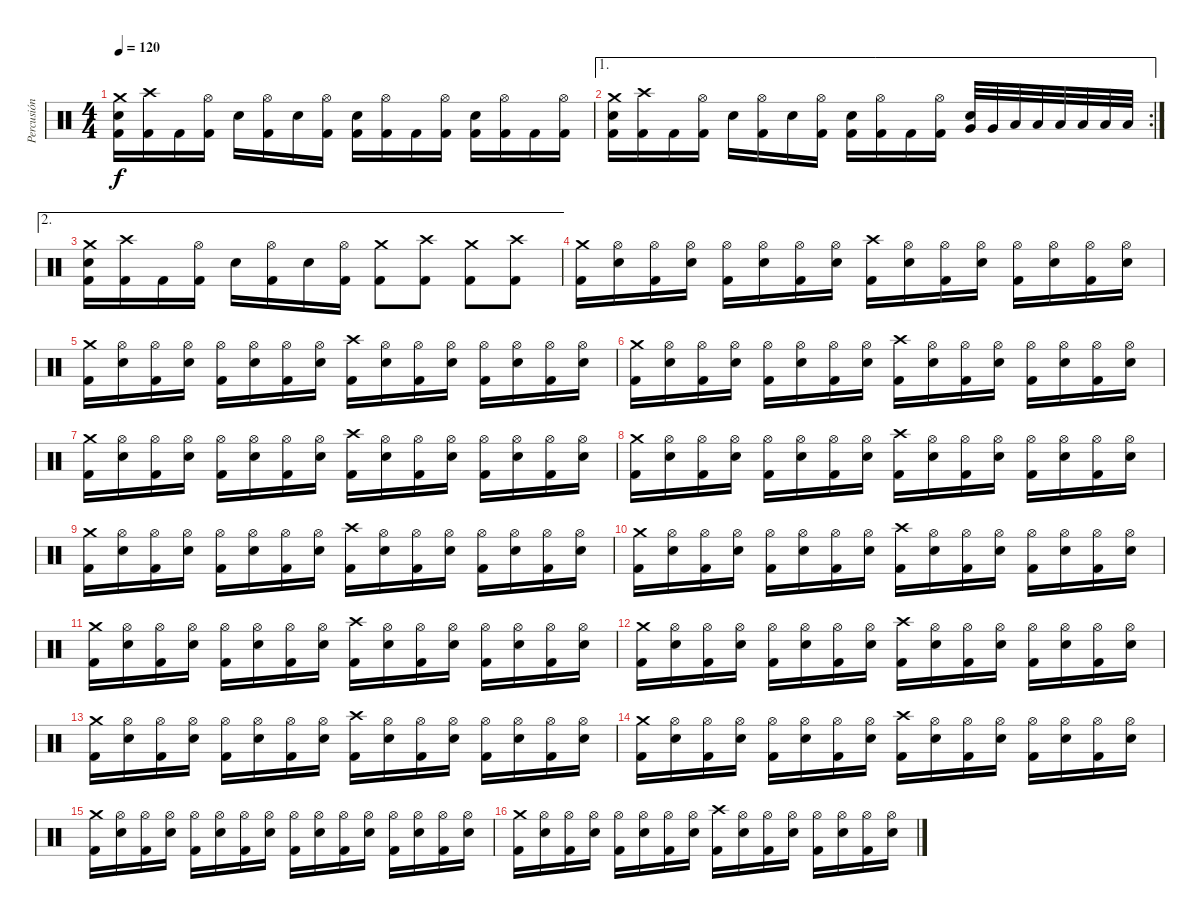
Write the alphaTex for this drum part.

\track ("Percusión" "Percusión") {instrument percussion}
\staff {score}
\articulation defaults
\ts (4 4)
\tempo 120
\clef neutral
\ks c
("Crash medium (hit)" "Electric Snare (hit)" "Kick (hit) 2").16{dy f} ("Crash high (hit)" "Kick (hit) 2").16 "Kick (hit) 2".16 ("Hi-Hat (open)" "Kick (hit) 2").16 "Electric Snare (hit)".16 ("Hi-Hat (open)" "Kick (hit) 2").16 "Electric Snare (hit)".16 ("Hi-Hat (open)" "Kick (hit) 2").16 ("Electric Snare (hit)" "Kick (hit) 2").16 ("Hi-Hat (open)" "Kick (hit) 2").16 "Kick (hit) 2".16 ("Hi-Hat (open)" "Kick (hit) 2").16 ("Electric Snare (hit)" "Kick (hit) 2").16 ("Hi-Hat (open)" "Kick (hit) 2").16 "Kick (hit) 2".16 ("Hi-Hat (open)" "Kick (hit) 2").16 |
\ae 1
\rc 2
("Crash medium (hit)" "Electric Snare (hit)" "Kick (hit) 2").16 ("Crash high (hit)" "Kick (hit) 2").16 "Kick (hit) 2".16 ("Hi-Hat (open)" "Kick (hit) 2").16 "Electric Snare (hit)".16 ("Hi-Hat (open)" "Kick (hit) 2").16 "Electric Snare (hit)".16 ("Hi-Hat (open)" "Kick (hit) 2").16 ("Electric Snare (hit)" "Kick (hit) 2").16 ("Hi-Hat (open)" "Kick (hit) 2").16 "Kick (hit) 2".16 ("Hi-Hat (open)" "Kick (hit) 2").16 ("Very Low Tom (hit)" "Electric Snare (hit)").32 "Very Low Tom (hit)".32 "Low Floor Tom (hit)".32 "Low Floor Tom (hit)".32 "Low Tom (hit)".32 "Low Tom (hit)".32 "Low Floor Tom (hit)".32 "Low Floor Tom (hit)".32 |
\ae 2
("Crash medium (hit)" "Electric Snare (hit)" "Kick (hit) 2").16 ("Crash high (hit)" "Kick (hit) 2").16 "Kick (hit) 2".16 ("Hi-Hat (open)" "Kick (hit) 2").16 "Electric Snare (hit)".16 ("Hi-Hat (open)" "Kick (hit) 2").16 "Electric Snare (hit)".16 ("Hi-Hat (open)" "Kick (hit) 2").16 ("Crash medium (hit)" "Kick (hit) 2").8 ("Crash high (hit)" "Kick (hit) 2").8 ("Crash medium (hit)" "Kick (hit) 2").8 ("Crash high (hit)" "Kick (hit) 2").8 |
("Crash medium (hit)" "Kick (hit) 2").16 ("Hi-Hat (open)" "Electric Snare (hit)").16 ("Hi-Hat (open)" "Kick (hit) 2").16 ("Hi-Hat (open)" "Electric Snare (hit)").16 ("Hi-Hat (open)" "Kick (hit) 2").16 ("Hi-Hat (open)" "Electric Snare (hit)").16 ("Hi-Hat (open)" "Kick (hit) 2").16 ("Hi-Hat (open)" "Electric Snare (hit)").16 ("Crash high (hit)" "Kick (hit) 2").16 ("Hi-Hat (open)" "Electric Snare (hit)").16 ("Hi-Hat (open)" "Kick (hit) 2").16 ("Hi-Hat (open)" "Electric Snare (hit)").16 ("Hi-Hat (open)" "Kick (hit) 2").16 ("Hi-Hat (open)" "Electric Snare (hit)").16 ("Hi-Hat (open)" "Kick (hit) 2").16 ("Hi-Hat (open)" "Electric Snare (hit)").16 |
("Crash medium (hit)" "Kick (hit) 2").16 ("Hi-Hat (open)" "Electric Snare (hit)").16 ("Hi-Hat (open)" "Kick (hit) 2").16 ("Hi-Hat (open)" "Electric Snare (hit)").16 ("Hi-Hat (open)" "Kick (hit) 2").16 ("Hi-Hat (open)" "Electric Snare (hit)").16 ("Hi-Hat (open)" "Kick (hit) 2").16 ("Hi-Hat (open)" "Electric Snare (hit)").16 ("Crash high (hit)" "Kick (hit) 2").16 ("Hi-Hat (open)" "Electric Snare (hit)").16 ("Hi-Hat (open)" "Kick (hit) 2").16 ("Hi-Hat (open)" "Electric Snare (hit)").16 ("Hi-Hat (open)" "Kick (hit) 2").16 ("Hi-Hat (open)" "Electric Snare (hit)").16 ("Hi-Hat (open)" "Kick (hit) 2").16 ("Hi-Hat (open)" "Electric Snare (hit)").16 |
("Crash medium (hit)" "Kick (hit) 2").16 ("Hi-Hat (open)" "Electric Snare (hit)").16 ("Hi-Hat (open)" "Kick (hit) 2").16 ("Hi-Hat (open)" "Electric Snare (hit)").16 ("Hi-Hat (open)" "Kick (hit) 2").16 ("Hi-Hat (open)" "Electric Snare (hit)").16 ("Hi-Hat (open)" "Kick (hit) 2").16 ("Hi-Hat (open)" "Electric Snare (hit)").16 ("Crash high (hit)" "Kick (hit) 2").16 ("Hi-Hat (open)" "Electric Snare (hit)").16 ("Hi-Hat (open)" "Kick (hit) 2").16 ("Hi-Hat (open)" "Electric Snare (hit)").16 ("Hi-Hat (open)" "Kick (hit) 2").16 ("Hi-Hat (open)" "Electric Snare (hit)").16 ("Hi-Hat (open)" "Kick (hit) 2").16 ("Hi-Hat (open)" "Electric Snare (hit)").16 |
("Crash medium (hit)" "Kick (hit) 2").16 ("Hi-Hat (open)" "Electric Snare (hit)").16 ("Hi-Hat (open)" "Kick (hit) 2").16 ("Hi-Hat (open)" "Electric Snare (hit)").16 ("Hi-Hat (open)" "Kick (hit) 2").16 ("Hi-Hat (open)" "Electric Snare (hit)").16 ("Hi-Hat (open)" "Kick (hit) 2").16 ("Hi-Hat (open)" "Electric Snare (hit)").16 ("Crash high (hit)" "Kick (hit) 2").16 ("Hi-Hat (open)" "Electric Snare (hit)").16 ("Hi-Hat (open)" "Kick (hit) 2").16 ("Hi-Hat (open)" "Electric Snare (hit)").16 ("Hi-Hat (open)" "Kick (hit) 2").16 ("Hi-Hat (open)" "Electric Snare (hit)").16 ("Hi-Hat (open)" "Kick (hit) 2").16 ("Hi-Hat (open)" "Electric Snare (hit)").16 |
("Crash medium (hit)" "Kick (hit) 2").16 ("Hi-Hat (open)" "Electric Snare (hit)").16 ("Hi-Hat (open)" "Kick (hit) 2").16 ("Hi-Hat (open)" "Electric Snare (hit)").16 ("Hi-Hat (open)" "Kick (hit) 2").16 ("Hi-Hat (open)" "Electric Snare (hit)").16 ("Hi-Hat (open)" "Kick (hit) 2").16 ("Hi-Hat (open)" "Electric Snare (hit)").16 ("Crash high (hit)" "Kick (hit) 2").16 ("Hi-Hat (open)" "Electric Snare (hit)").16 ("Hi-Hat (open)" "Kick (hit) 2").16 ("Hi-Hat (open)" "Electric Snare (hit)").16 ("Hi-Hat (open)" "Kick (hit) 2").16 ("Hi-Hat (open)" "Electric Snare (hit)").16 ("Hi-Hat (open)" "Kick (hit) 2").16 ("Hi-Hat (open)" "Electric Snare (hit)").16 |
("Crash medium (hit)" "Kick (hit) 2").16 ("Hi-Hat (open)" "Electric Snare (hit)").16 ("Hi-Hat (open)" "Kick (hit) 2").16 ("Hi-Hat (open)" "Electric Snare (hit)").16 ("Hi-Hat (open)" "Kick (hit) 2").16 ("Hi-Hat (open)" "Electric Snare (hit)").16 ("Hi-Hat (open)" "Kick (hit) 2").16 ("Hi-Hat (open)" "Electric Snare (hit)").16 ("Crash high (hit)" "Kick (hit) 2").16 ("Hi-Hat (open)" "Electric Snare (hit)").16 ("Hi-Hat (open)" "Kick (hit) 2").16 ("Hi-Hat (open)" "Electric Snare (hit)").16 ("Hi-Hat (open)" "Kick (hit) 2").16 ("Hi-Hat (open)" "Electric Snare (hit)").16 ("Hi-Hat (open)" "Kick (hit) 2").16 ("Hi-Hat (open)" "Electric Snare (hit)").16 |
("Crash medium (hit)" "Kick (hit) 2").16 ("Hi-Hat (open)" "Electric Snare (hit)").16 ("Hi-Hat (open)" "Kick (hit) 2").16 ("Hi-Hat (open)" "Electric Snare (hit)").16 ("Hi-Hat (open)" "Kick (hit) 2").16 ("Hi-Hat (open)" "Electric Snare (hit)").16 ("Hi-Hat (open)" "Kick (hit) 2").16 ("Hi-Hat (open)" "Electric Snare (hit)").16 ("Crash high (hit)" "Kick (hit) 2").16 ("Hi-Hat (open)" "Electric Snare (hit)").16 ("Hi-Hat (open)" "Kick (hit) 2").16 ("Hi-Hat (open)" "Electric Snare (hit)").16 ("Hi-Hat (open)" "Kick (hit) 2").16 ("Hi-Hat (open)" "Electric Snare (hit)").16 ("Hi-Hat (open)" "Kick (hit) 2").16 ("Hi-Hat (open)" "Electric Snare (hit)").16 |
("Crash medium (hit)" "Kick (hit) 2").16 ("Hi-Hat (open)" "Electric Snare (hit)").16 ("Hi-Hat (open)" "Kick (hit) 2").16 ("Hi-Hat (open)" "Electric Snare (hit)").16 ("Hi-Hat (open)" "Kick (hit) 2").16 ("Hi-Hat (open)" "Electric Snare (hit)").16 ("Hi-Hat (open)" "Kick (hit) 2").16 ("Hi-Hat (open)" "Electric Snare (hit)").16 ("Crash high (hit)" "Kick (hit) 2").16 ("Hi-Hat (open)" "Electric Snare (hit)").16 ("Hi-Hat (open)" "Kick (hit) 2").16 ("Hi-Hat (open)" "Electric Snare (hit)").16 ("Hi-Hat (open)" "Kick (hit) 2").16 ("Hi-Hat (open)" "Electric Snare (hit)").16 ("Hi-Hat (open)" "Kick (hit) 2").16 ("Hi-Hat (open)" "Electric Snare (hit)").16 |
("Crash medium (hit)" "Kick (hit) 2").16 ("Hi-Hat (open)" "Electric Snare (hit)").16 ("Hi-Hat (open)" "Kick (hit) 2").16 ("Hi-Hat (open)" "Electric Snare (hit)").16 ("Hi-Hat (open)" "Kick (hit) 2").16 ("Hi-Hat (open)" "Electric Snare (hit)").16 ("Hi-Hat (open)" "Kick (hit) 2").16 ("Hi-Hat (open)" "Electric Snare (hit)").16 ("Crash high (hit)" "Kick (hit) 2").16 ("Hi-Hat (open)" "Electric Snare (hit)").16 ("Hi-Hat (open)" "Kick (hit) 2").16 ("Hi-Hat (open)" "Electric Snare (hit)").16 ("Hi-Hat (open)" "Kick (hit) 2").16 ("Hi-Hat (open)" "Electric Snare (hit)").16 ("Hi-Hat (open)" "Kick (hit) 2").16 ("Hi-Hat (open)" "Electric Snare (hit)").16 |
("Crash medium (hit)" "Kick (hit) 2").16 ("Hi-Hat (open)" "Electric Snare (hit)").16 ("Hi-Hat (open)" "Kick (hit) 2").16 ("Hi-Hat (open)" "Electric Snare (hit)").16 ("Hi-Hat (open)" "Kick (hit) 2").16 ("Hi-Hat (open)" "Electric Snare (hit)").16 ("Hi-Hat (open)" "Kick (hit) 2").16 ("Hi-Hat (open)" "Electric Snare (hit)").16 ("Crash high (hit)" "Kick (hit) 2").16 ("Hi-Hat (open)" "Electric Snare (hit)").16 ("Hi-Hat (open)" "Kick (hit) 2").16 ("Hi-Hat (open)" "Electric Snare (hit)").16 ("Hi-Hat (open)" "Kick (hit) 2").16 ("Hi-Hat (open)" "Electric Snare (hit)").16 ("Hi-Hat (open)" "Kick (hit) 2").16 ("Hi-Hat (open)" "Electric Snare (hit)").16 |
("Crash medium (hit)" "Kick (hit) 2").16 ("Hi-Hat (open)" "Electric Snare (hit)").16 ("Hi-Hat (open)" "Kick (hit) 2").16 ("Hi-Hat (open)" "Electric Snare (hit)").16 ("Hi-Hat (open)" "Kick (hit) 2").16 ("Hi-Hat (open)" "Electric Snare (hit)").16 ("Hi-Hat (open)" "Kick (hit) 2").16 ("Hi-Hat (open)" "Electric Snare (hit)").16 ("Crash high (hit)" "Kick (hit) 2").16 ("Hi-Hat (open)" "Electric Snare (hit)").16 ("Hi-Hat (open)" "Kick (hit) 2").16 ("Hi-Hat (open)" "Electric Snare (hit)").16 ("Hi-Hat (open)" "Kick (hit) 2").16 ("Hi-Hat (open)" "Electric Snare (hit)").16 ("Hi-Hat (open)" "Kick (hit) 2").16 ("Hi-Hat (open)" "Electric Snare (hit)").16 |
("Crash medium (hit)" "Kick (hit) 2").16 ("Hi-Hat (open)" "Electric Snare (hit)").16 ("Hi-Hat (open)" "Kick (hit) 2").16 ("Hi-Hat (open)" "Electric Snare (hit)").16 ("Hi-Hat (open)" "Kick (hit) 2").16 ("Hi-Hat (open)" "Electric Snare (hit)").16 ("Hi-Hat (open)" "Kick (hit) 2").16 ("Hi-Hat (open)" "Electric Snare (hit)").16 ("Hi-Hat (open)" "Kick (hit) 2").16 ("Hi-Hat (open)" "Electric Snare (hit)").16 ("Hi-Hat (open)" "Kick (hit) 2").16 ("Hi-Hat (open)" "Electric Snare (hit)").16 ("Hi-Hat (open)" "Kick (hit) 2").16 ("Hi-Hat (open)" "Electric Snare (hit)").16 ("Hi-Hat (open)" "Kick (hit) 2").16 ("Hi-Hat (open)" "Electric Snare (hit)").16 |
("Crash medium (hit)" "Kick (hit) 2").16 ("Hi-Hat (open)" "Electric Snare (hit)").16 ("Hi-Hat (open)" "Kick (hit) 2").16 ("Hi-Hat (open)" "Electric Snare (hit)").16 ("Hi-Hat (open)" "Kick (hit) 2").16 ("Hi-Hat (open)" "Electric Snare (hit)").16 ("Hi-Hat (open)" "Kick (hit) 2").16 ("Hi-Hat (open)" "Electric Snare (hit)").16 ("Crash high (hit)" "Kick (hit) 2").16 ("Hi-Hat (open)" "Electric Snare (hit)").16 ("Hi-Hat (open)" "Kick (hit) 2").16 ("Hi-Hat (open)" "Electric Snare (hit)").16 ("Hi-Hat (open)" "Kick (hit) 2").16 ("Hi-Hat (open)" "Electric Snare (hit)").16 ("Hi-Hat (open)" "Kick (hit) 2").16 ("Hi-Hat (open)" "Electric Snare (hit)").16
